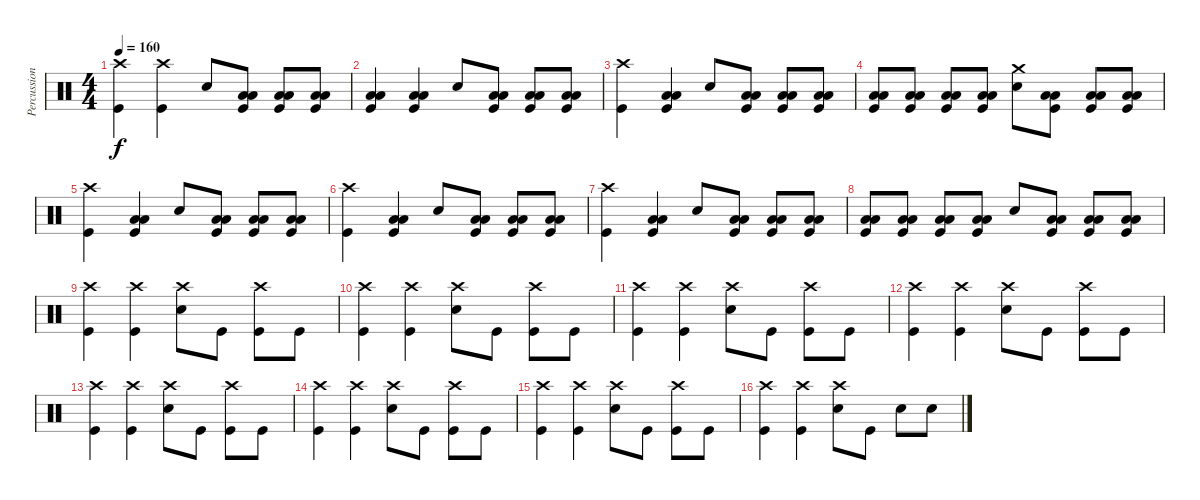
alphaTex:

\track ("Percussions" "Percussion") {instrument percussion}
\staff {score}
\articulation defaults
\ts (4 4)
\tempo 160
\clef neutral
\ks c
("Crash high (hit)" "Kick (hit)").4{dy f} ("Crash high (hit)" "Kick (hit)").4 "Snare (hit) 2".8 ("Low Floor Tom (hit)" "Low Tom (hit)" "Kick (hit)").8 ("Low Floor Tom (hit)" "Low Tom (hit)" "Kick (hit)").8 ("Low Floor Tom (hit)" "Low Tom (hit)" "Kick (hit)").8 |
("Low Floor Tom (hit)" "Low Tom (hit)" "Kick (hit)").4 ("Low Floor Tom (hit)" "Low Tom (hit)" "Kick (hit)").4 "Snare (hit) 2".8 ("Low Floor Tom (hit)" "Low Tom (hit)" "Kick (hit)").8 ("Low Floor Tom (hit)" "Low Tom (hit)" "Kick (hit)").8 ("Low Floor Tom (hit)" "Low Tom (hit)" "Kick (hit)").8 |
("Crash high (hit)" "Kick (hit)").4 ("Low Floor Tom (hit)" "Low Tom (hit)" "Kick (hit)").4 "Snare (hit) 2".8 ("Low Floor Tom (hit)" "Low Tom (hit)" "Kick (hit)").8 ("Low Floor Tom (hit)" "Low Tom (hit)" "Kick (hit)").8 ("Low Floor Tom (hit)" "Low Tom (hit)" "Kick (hit)").8 |
("Low Floor Tom (hit)" "Low Tom (hit)" "Kick (hit)").8 ("Low Floor Tom (hit)" "Low Tom (hit)" "Kick (hit)").8 ("Low Floor Tom (hit)" "Low Tom (hit)" "Kick (hit)").8 ("Low Floor Tom (hit)" "Low Tom (hit)" "Kick (hit)").8 ("Crash medium (hit)" "Snare (hit) 2").8 ("Low Floor Tom (hit)" "Low Tom (hit)" "Kick (hit)").8 ("Low Floor Tom (hit)" "Low Tom (hit)" "Kick (hit)").8 ("Low Floor Tom (hit)" "Low Tom (hit)" "Kick (hit)").8 |
("Crash high (hit)" "Kick (hit)").4 ("Low Floor Tom (hit)" "Low Tom (hit)" "Kick (hit)").4 "Snare (hit) 2".8 ("Low Floor Tom (hit)" "Low Tom (hit)" "Kick (hit)").8 ("Low Floor Tom (hit)" "Low Tom (hit)" "Kick (hit)").8 ("Low Floor Tom (hit)" "Low Tom (hit)" "Kick (hit)").8 |
("Crash high (hit)" "Kick (hit)").4 ("Low Floor Tom (hit)" "Low Tom (hit)" "Kick (hit)").4 "Snare (hit) 2".8 ("Low Floor Tom (hit)" "Low Tom (hit)" "Kick (hit)").8 ("Low Floor Tom (hit)" "Low Tom (hit)" "Kick (hit)").8 ("Low Floor Tom (hit)" "Low Tom (hit)" "Kick (hit)").8 |
("Crash high (hit)" "Kick (hit)").4 ("Low Floor Tom (hit)" "Low Tom (hit)" "Kick (hit)").4 "Snare (hit) 2".8 ("Low Floor Tom (hit)" "Low Tom (hit)" "Kick (hit)").8 ("Low Floor Tom (hit)" "Low Tom (hit)" "Kick (hit)").8 ("Low Floor Tom (hit)" "Low Tom (hit)" "Kick (hit)").8 |
("Low Floor Tom (hit)" "Low Tom (hit)" "Kick (hit)").8 ("Low Floor Tom (hit)" "Low Tom (hit)" "Kick (hit)").8 ("Low Floor Tom (hit)" "Low Tom (hit)" "Kick (hit)").8 ("Low Floor Tom (hit)" "Low Tom (hit)" "Kick (hit)").8 "Snare (hit) 2".8 ("Low Floor Tom (hit)" "Low Tom (hit)" "Kick (hit)").8 ("Low Floor Tom (hit)" "Low Tom (hit)" "Kick (hit)").8 ("Low Floor Tom (hit)" "Low Tom (hit)" "Kick (hit)").8 |
("Crash high (hit)" "Kick (hit)").4 ("Crash high (hit)" "Kick (hit)").4 ("Crash high (hit)" "Snare (hit) 2").8 "Kick (hit)".8 ("Crash high (hit)" "Kick (hit)").8 "Kick (hit)".8 |
("Crash high (hit)" "Kick (hit)").4 ("Crash high (hit)" "Kick (hit)").4 ("Crash high (hit)" "Snare (hit) 2").8 "Kick (hit)".8 ("Crash high (hit)" "Kick (hit)").8 "Kick (hit)".8 |
("Crash high (hit)" "Kick (hit)").4 ("Crash high (hit)" "Kick (hit)").4 ("Crash high (hit)" "Snare (hit) 2").8 "Kick (hit)".8 ("Crash high (hit)" "Kick (hit)").8 "Kick (hit)".8 |
("Crash high (hit)" "Kick (hit)").4 ("Crash high (hit)" "Kick (hit)").4 ("Crash high (hit)" "Snare (hit) 2").8 "Kick (hit)".8 ("Crash high (hit)" "Kick (hit)").8 "Kick (hit)".8 |
("Crash high (hit)" "Kick (hit)").4 ("Crash high (hit)" "Kick (hit)").4 ("Crash high (hit)" "Snare (hit) 2").8 "Kick (hit)".8 ("Crash high (hit)" "Kick (hit)").8 "Kick (hit)".8 |
("Crash high (hit)" "Kick (hit)").4 ("Crash high (hit)" "Kick (hit)").4 ("Crash high (hit)" "Snare (hit) 2").8 "Kick (hit)".8 ("Crash high (hit)" "Kick (hit)").8 "Kick (hit)".8 |
("Crash high (hit)" "Kick (hit)").4 ("Crash high (hit)" "Kick (hit)").4 ("Crash high (hit)" "Snare (hit) 2").8 "Kick (hit)".8 ("Crash high (hit)" "Kick (hit)").8 "Kick (hit)".8 |
("Crash high (hit)" "Kick (hit)").4 ("Crash high (hit)" "Kick (hit)").4 ("Crash high (hit)" "Snare (hit) 2").8 "Kick (hit)".8 "Snare (hit) 2".8 "Snare (hit) 2".8
